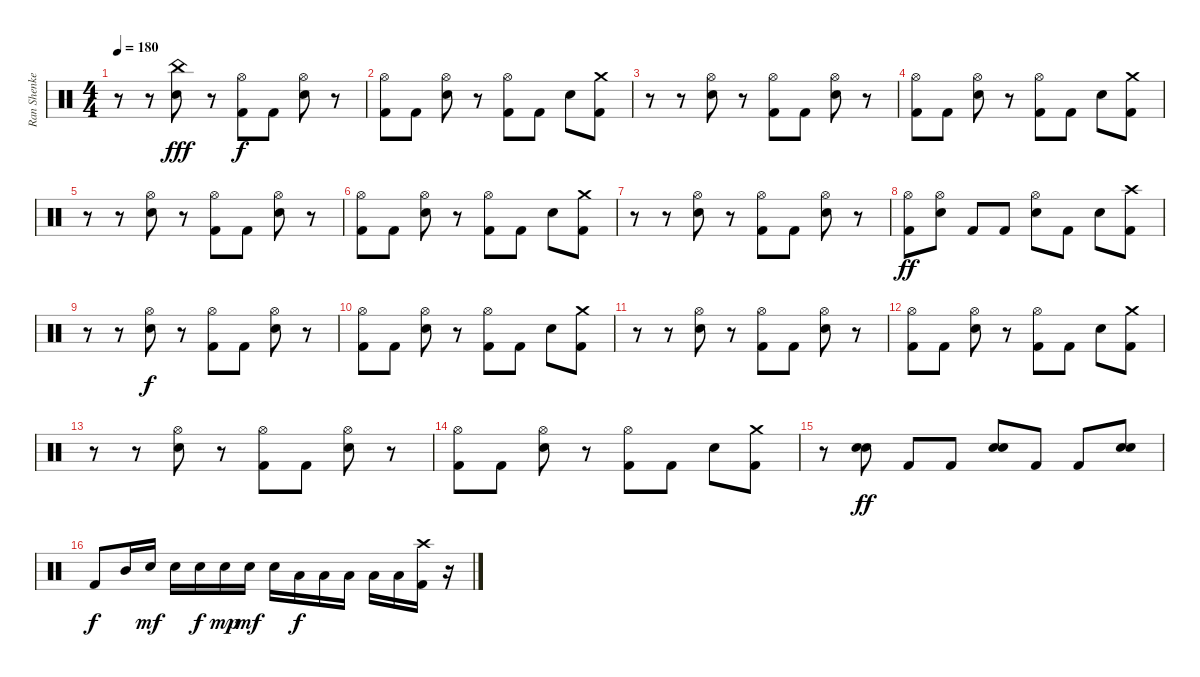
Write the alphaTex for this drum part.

\track ("Ran Shenkerman" "Ran Shenke") {instrument percussion}
\staff {score}
\articulation defaults
\ts (4 4)
\tempo 180
\clef neutral
\ks c
r.8{dy ff} r.8 ("China (hit)" "Snare (hit) 2").8{dy fff} r.8 ("Hi-Hat (open)" "Kick (hit) 2").8{dy f} "Kick (hit) 2".8 ("Hi-Hat (open)" "Snare (hit) 2").8 r.8 |
("Hi-Hat (open)" "Kick (hit) 2").8 "Kick (hit) 2".8 ("Hi-Hat (open)" "Snare (hit) 2").8 r.8 ("Hi-Hat (open)" "Kick (hit) 2").8 "Kick (hit) 2".8 "Snare (hit) 2".8 ("Crash medium (hit)" "Kick (hit) 2").8 |
r.8 r.8 ("Hi-Hat (open)" "Snare (hit) 2").8 r.8 ("Hi-Hat (open)" "Kick (hit) 2").8 "Kick (hit) 2".8 ("Hi-Hat (open)" "Snare (hit) 2").8 r.8 |
("Hi-Hat (open)" "Kick (hit) 2").8 "Kick (hit) 2".8 ("Hi-Hat (open)" "Snare (hit) 2").8 r.8 ("Hi-Hat (open)" "Kick (hit) 2").8 "Kick (hit) 2".8 "Snare (hit) 2".8 ("Crash medium (hit)" "Kick (hit) 2").8 |
r.8 r.8 ("Hi-Hat (open)" "Snare (hit) 2").8 r.8 ("Hi-Hat (open)" "Kick (hit) 2").8 "Kick (hit) 2".8 ("Hi-Hat (open)" "Snare (hit) 2").8 r.8 |
("Hi-Hat (open)" "Kick (hit) 2").8 "Kick (hit) 2".8 ("Hi-Hat (open)" "Snare (hit) 2").8 r.8 ("Hi-Hat (open)" "Kick (hit) 2").8 "Kick (hit) 2".8 "Snare (hit) 2".8 ("Crash medium (hit)" "Kick (hit) 2").8 |
r.8 r.8 ("Hi-Hat (open)" "Snare (hit) 2").8 r.8 ("Hi-Hat (open)" "Kick (hit) 2").8 "Kick (hit) 2".8 ("Hi-Hat (open)" "Snare (hit) 2").8 r.8 |
("Hi-Hat (open)" "Kick (hit) 2").8{dy ff} ("Hi-Hat (open)" "Snare (hit) 2").8 "Kick (hit) 2".8 "Kick (hit) 2".8 ("Hi-Hat (open)" "Snare (hit) 2").8 "Kick (hit) 2".8 "Snare (hit) 2".8 ("Crash high (hit)" "Kick (hit) 2").8 |
r.8 r.8 ("Hi-Hat (open)" "Snare (hit) 2").8{dy f} r.8 ("Hi-Hat (open)" "Kick (hit) 2").8 "Kick (hit) 2".8 ("Hi-Hat (open)" "Snare (hit) 2").8 r.8 |
("Hi-Hat (open)" "Kick (hit) 2").8 "Kick (hit) 2".8 ("Hi-Hat (open)" "Snare (hit) 2").8 r.8 ("Hi-Hat (open)" "Kick (hit) 2").8 "Kick (hit) 2".8 "Snare (hit) 2".8 ("Crash medium (hit)" "Kick (hit) 2").8 |
r.8 r.8 ("Hi-Hat (open)" "Snare (hit) 2").8 r.8 ("Hi-Hat (open)" "Kick (hit) 2").8 "Kick (hit) 2".8 ("Hi-Hat (open)" "Snare (hit) 2").8 r.8 |
("Hi-Hat (open)" "Kick (hit) 2").8 "Kick (hit) 2".8 ("Hi-Hat (open)" "Snare (hit) 2").8 r.8 ("Hi-Hat (open)" "Kick (hit) 2").8 "Kick (hit) 2".8 "Snare (hit) 2".8 ("Crash medium (hit)" "Kick (hit) 2").8 |
r.8 r.8 ("Hi-Hat (open)" "Snare (hit) 2").8 r.8 ("Hi-Hat (open)" "Kick (hit) 2").8 "Kick (hit) 2".8 ("Hi-Hat (open)" "Snare (hit) 2").8 r.8 |
("Hi-Hat (open)" "Kick (hit) 2").8 "Kick (hit) 2".8 ("Hi-Hat (open)" "Snare (hit) 2").8 r.8 ("Hi-Hat (open)" "Kick (hit) 2").8 "Kick (hit) 2".8 "Snare (hit) 2".8 ("Crash medium (hit)" "Kick (hit) 2").8 |
r.8 ("Snare (hit) 2" "Snare (hit) 2").8{dy ff} "Kick (hit) 2".8 "Kick (hit) 2".8 ("Snare (hit) 2" "Snare (hit) 2").8 "Kick (hit) 2".8 "Kick (hit) 2".8 ("Snare (hit) 2" "Snare (hit) 2").8 |
"Kick (hit) 2".8{dy f} "Mid Tom (hit)".16 "Snare (hit) 2".16{dy mf} "Snare (hit) 2".16 "Snare (hit) 2".16{dy f} "Snare (hit) 2".16{dy mp} "Snare (hit) 2".16{dy mf} "Snare (hit) 2".16 "Low Tom (hit)".16{dy f} "Low Tom (hit)".16 "Low Floor Tom (hit)".16 "Low Floor Tom (hit)".16 "Low Floor Tom (hit)".16 ("Crash high (hit)" "Kick (hit) 2").16 r.16
